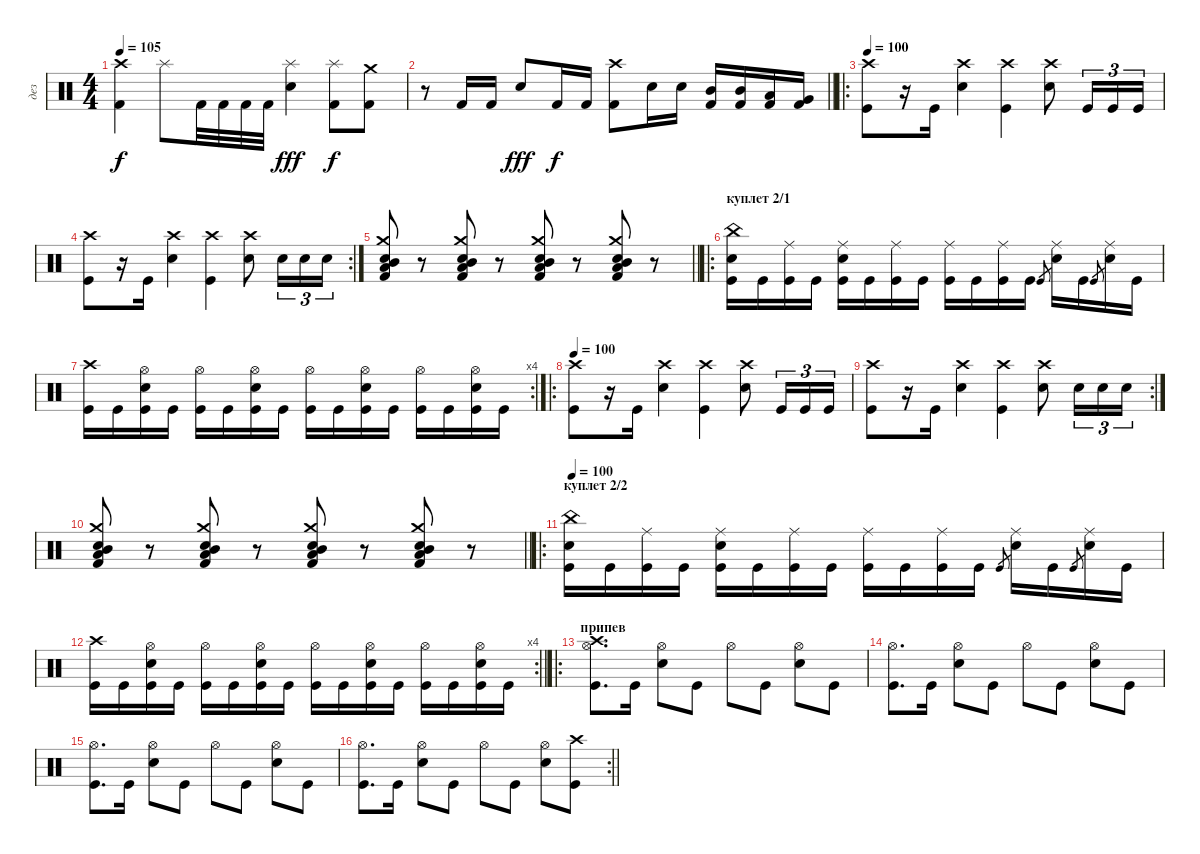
\track ("дез" "дез") {instrument percussion}
\staff {score}
\articulation defaults
\ts (4 4)
\tempo 105
\clef neutral
\ks c
("Crash high (hit)" "Kick (hit) 2").4{dy f} "Splash (hit)".8 "Kick (hit) 2".32 "Kick (hit) 2".32 "Kick (hit) 2".32 "Kick (hit) 2".32 ("Splash (hit)" "Snare (hit) 2").4{dy fff} ("Splash (hit)" "Kick (hit) 2").8{dy f} ("Crash medium (hit)" "Kick (hit) 2").8 |
\barLineRight lightlight
r.8 "Kick (hit) 2".16 "Kick (hit) 2".16 "Snare (hit) 2".8{dy fff} "Kick (hit) 2".16{dy f} "Kick (hit) 2".16 ("Crash high (hit)" "Kick (hit) 2").8 "Snare (hit) 2".16 "Snare (hit) 2".16 ("Mid Tom (hit)" "Kick (hit) 2").16 ("Mid Tom (hit)" "Kick (hit) 2").16 ("Low Tom (hit)" "Kick (hit) 2").16 ("Very Low Tom (hit)" "Kick (hit) 2").16 |
\ro
\tempo 100
("Crash high (hit)" "Kick (hit)").8 r.16 "Kick (hit)".16 ("Crash high (hit)" "Electric Snare (hit)").4 ("Crash high (hit)" "Kick (hit)").4 ("Crash high (hit)" "Electric Snare (hit)").8 "Kick (hit)".16{tu (3 2)} "Kick (hit)".16{tu (3 2)} "Kick (hit)".16{tu (3 2)} |
\rc 2
("Crash high (hit)" "Kick (hit)").8 r.16 "Kick (hit)".16 ("Crash high (hit)" "Electric Snare (hit)").4 ("Crash high (hit)" "Kick (hit)").4 ("Crash high (hit)" "Electric Snare (hit)").8 "Electric Snare (hit)".16{tu (3 2)} "Electric Snare (hit)".16{tu (3 2)} "Electric Snare (hit)".16{tu (3 2)} |
\barLineRight lightlight
("Crash medium (hit)" "Low Tom (hit)" "Mid Tom (hit)" "Kick (hit) 2" "Electric Snare (hit)").8 r.8 ("Crash medium (hit)" "Low Tom (hit)" "Mid Tom (hit)" "Kick (hit) 2" "Electric Snare (hit)").8 r.8 ("Crash medium (hit)" "Low Tom (hit)" "Mid Tom (hit)" "Kick (hit) 2" "Electric Snare (hit)").8 r.8 ("Crash medium (hit)" "Low Tom (hit)" "Mid Tom (hit)" "Kick (hit) 2" "Electric Snare (hit)").8 r.8 |
\ro
\section ("" "куплет 2/1")
("China (hit)" "Electric Snare (hit)" "Kick (hit)").16 "Kick (hit)".16 ("Ride (middle)" "Kick (hit)").16 "Kick (hit)".16 ("Ride (middle)" "Electric Snare (hit)" "Kick (hit)").16 "Kick (hit)".16 ("Ride (middle)" "Kick (hit)").16 "Kick (hit)".16 ("Ride (middle)" "Kick (hit)").16 "Kick (hit)".16 ("Ride (middle)" "Kick (hit)").16 "Kick (hit)".16 "Kick (hit)"{sl}.8{gr} ("Ride (middle)" "Electric Snare (hit)").16 "Kick (hit)".16 "Kick (hit)"{sl}.8{gr} ("Ride (middle)" "Electric Snare (hit)").16 "Kick (hit)".16 |
\rc 4
("Crash high (hit)" "Kick (hit)").16 "Kick (hit)".16 ("Hi-Hat (open)" "Electric Snare (hit)" "Kick (hit)").16 "Kick (hit)".16 ("Hi-Hat (open)" "Kick (hit)").16 "Kick (hit)".16 ("Hi-Hat (open)" "Electric Snare (hit)" "Kick (hit)").16 "Kick (hit)".16 ("Hi-Hat (open)" "Kick (hit)").16 "Kick (hit)".16 ("Hi-Hat (open)" "Electric Snare (hit)" "Kick (hit)").16 "Kick (hit)".16 ("Hi-Hat (open)" "Kick (hit)").16 "Kick (hit)".16 ("Hi-Hat (open)" "Electric Snare (hit)" "Kick (hit)").16 "Kick (hit)".16 |
\ro
\tempo 100
("Crash high (hit)" "Kick (hit)").8 r.16 "Kick (hit)".16 ("Crash high (hit)" "Electric Snare (hit)").4 ("Crash high (hit)" "Kick (hit)").4 ("Crash high (hit)" "Electric Snare (hit)").8 "Kick (hit)".16{tu (3 2)} "Kick (hit)".16{tu (3 2)} "Kick (hit)".16{tu (3 2)} |
\rc 2
("Crash high (hit)" "Kick (hit)").8 r.16 "Kick (hit)".16 ("Crash high (hit)" "Electric Snare (hit)").4 ("Crash high (hit)" "Kick (hit)").4 ("Crash high (hit)" "Electric Snare (hit)").8 "Electric Snare (hit)".16{tu (3 2)} "Electric Snare (hit)".16{tu (3 2)} "Electric Snare (hit)".16{tu (3 2)} |
\barLineRight lightlight
("Crash medium (hit)" "Low Tom (hit)" "Mid Tom (hit)" "Kick (hit) 2" "Electric Snare (hit)").8 r.8 ("Crash medium (hit)" "Low Tom (hit)" "Mid Tom (hit)" "Kick (hit) 2" "Electric Snare (hit)").8 r.8 ("Crash medium (hit)" "Low Tom (hit)" "Mid Tom (hit)" "Kick (hit) 2" "Electric Snare (hit)").8 r.8 ("Crash medium (hit)" "Low Tom (hit)" "Mid Tom (hit)" "Kick (hit) 2" "Electric Snare (hit)").8 r.8 |
\ro
\section ("" "куплет 2/2")
\tempo 100
("China (hit)" "Electric Snare (hit)" "Kick (hit)").16 "Kick (hit)".16 ("Ride (middle)" "Kick (hit)").16 "Kick (hit)".16 ("Ride (middle)" "Electric Snare (hit)" "Kick (hit)").16 "Kick (hit)".16 ("Ride (middle)" "Kick (hit)").16 "Kick (hit)".16 ("Ride (middle)" "Kick (hit)").16 "Kick (hit)".16 ("Ride (middle)" "Kick (hit)").16 "Kick (hit)".16 "Kick (hit)"{sl}.8{gr} ("Ride (middle)" "Electric Snare (hit)").16 "Kick (hit)".16 "Kick (hit)"{sl}.8{gr} ("Ride (middle)" "Electric Snare (hit)").16 "Kick (hit)".16 |
\rc 4
\barLineRight lightlight
("Crash high (hit)" "Kick (hit)").16 "Kick (hit)".16 ("Hi-Hat (open)" "Electric Snare (hit)" "Kick (hit)").16 "Kick (hit)".16 ("Hi-Hat (open)" "Kick (hit)").16 "Kick (hit)".16 ("Hi-Hat (open)" "Electric Snare (hit)" "Kick (hit)").16 "Kick (hit)".16 ("Hi-Hat (open)" "Kick (hit)").16 "Kick (hit)".16 ("Hi-Hat (open)" "Electric Snare (hit)" "Kick (hit)").16 "Kick (hit)".16 ("Hi-Hat (open)" "Kick (hit)").16 "Kick (hit)".16 ("Hi-Hat (open)" "Electric Snare (hit)" "Kick (hit)").16 "Kick (hit)".16 |
\ro
\section ("" "припев")
("Crash high (hit)" "Hi-Hat (open)" "Kick (hit)").8{d} "Kick (hit)".16 ("Hi-Hat (open)" "Snare (hit) 2").8 "Kick (hit)".8 "Hi-Hat (open)".8 "Kick (hit)".8 ("Hi-Hat (open)" "Snare (hit) 2").8 "Kick (hit)".8 |
("Hi-Hat (open)" "Kick (hit)").8{d} "Kick (hit)".16 ("Hi-Hat (open)" "Snare (hit) 2").8 "Kick (hit)".8 "Hi-Hat (open)".8 "Kick (hit)".8 ("Hi-Hat (open)" "Snare (hit) 2").8 "Kick (hit)".8 |
("Hi-Hat (open)" "Kick (hit)").8{d} "Kick (hit)".16 ("Hi-Hat (open)" "Snare (hit) 2").8 "Kick (hit)".8 "Hi-Hat (open)".8 "Kick (hit)".8 ("Hi-Hat (open)" "Snare (hit) 2").8 "Kick (hit)".8 |
\rc 2
\barLineRight lightlight
("Hi-Hat (open)" "Kick (hit)").8{d} "Kick (hit)".16 ("Hi-Hat (open)" "Snare (hit) 2").8 "Kick (hit)".8 "Hi-Hat (open)".8 "Kick (hit)".8 ("Hi-Hat (open)" "Snare (hit) 2").8 ("Crash high (hit)" "Kick (hit)").8
